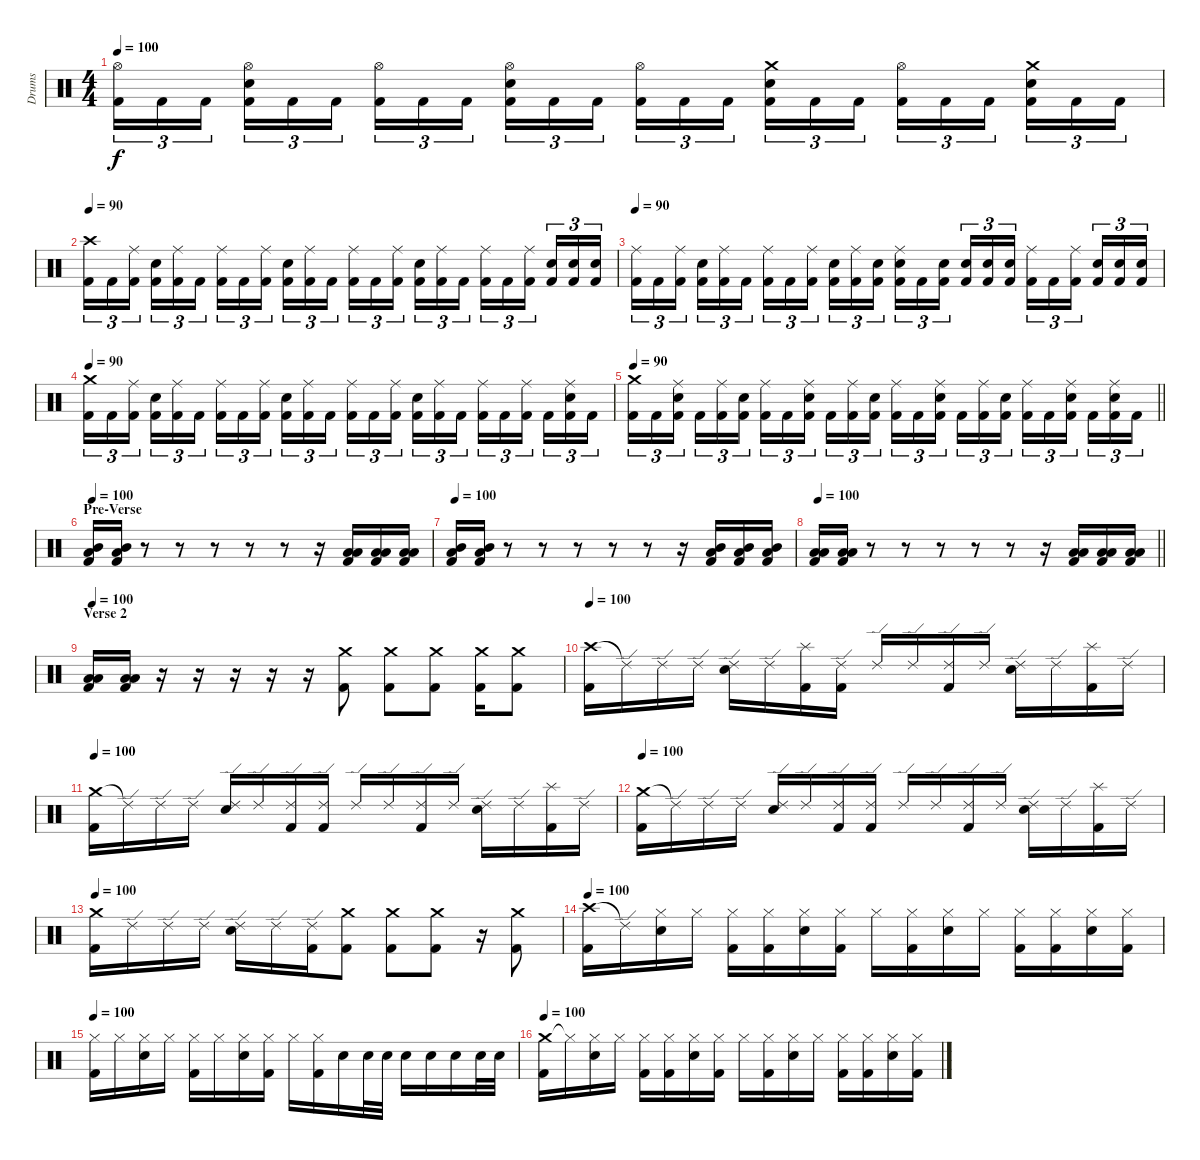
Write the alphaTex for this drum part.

\track ("Drums" "Drums") {instrument percussion}
\staff {score}
\articulation defaults
\ts (4 4)
\tempo 100
\clef neutral
\ks c
("Hi-Hat (open)" "Kick (hit) 2").16{tu (3 2) dy f} "Kick (hit) 2".16{tu (3 2)} "Kick (hit) 2".16{tu (3 2) beam splitsecondary} ("Hi-Hat (open)" "Electric Snare (hit)" "Kick (hit) 2").16{tu (3 2)} "Kick (hit) 2".16{tu (3 2)} "Kick (hit) 2".16{tu (3 2)} ("Hi-Hat (open)" "Kick (hit) 2").16{tu (3 2)} "Kick (hit) 2".16{tu (3 2)} "Kick (hit) 2".16{tu (3 2) beam splitsecondary} ("Hi-Hat (open)" "Electric Snare (hit)" "Kick (hit) 2").16{tu (3 2)} "Kick (hit) 2".16{tu (3 2)} "Kick (hit) 2".16{tu (3 2)} ("Hi-Hat (open)" "Kick (hit) 2").16{tu (3 2)} "Kick (hit) 2".16{tu (3 2)} "Kick (hit) 2".16{tu (3 2) beam splitsecondary} ("Crash medium (hit)" "Electric Snare (hit)" "Kick (hit) 2").16{tu (3 2)} "Kick (hit) 2".16{tu (3 2)} "Kick (hit) 2".16{tu (3 2)} ("Hi-Hat (open)" "Kick (hit) 2").16{tu (3 2)} "Kick (hit) 2".16{tu (3 2)} "Kick (hit) 2".16{tu (3 2) beam splitsecondary} ("Crash medium (hit)" "Electric Snare (hit)" "Kick (hit) 2").16{tu (3 2)} "Kick (hit) 2".16{tu (3 2)} "Kick (hit) 2".16{tu (3 2)} |
\tempo 90
("Crash high (hit)" "Kick (hit) 2").16{tu (3 2)} "Kick (hit) 2".16{tu (3 2)} ("Ride (middle)" "Kick (hit) 2").16{tu (3 2) beam splitsecondary} ("Electric Snare (hit)" "Kick (hit) 2").16{tu (3 2)} ("Ride (middle)" "Kick (hit) 2").16{tu (3 2)} "Kick (hit) 2".16{tu (3 2)} ("Ride (middle)" "Kick (hit) 2").16{tu (3 2)} "Kick (hit) 2".16{tu (3 2)} ("Ride (middle)" "Kick (hit) 2").16{tu (3 2) beam splitsecondary} ("Electric Snare (hit)" "Kick (hit) 2").16{tu (3 2)} ("Ride (middle)" "Kick (hit) 2").16{tu (3 2)} "Kick (hit) 2".16{tu (3 2)} ("Ride (middle)" "Kick (hit) 2").16{tu (3 2)} "Kick (hit) 2".16{tu (3 2)} ("Ride (middle)" "Kick (hit) 2").16{tu (3 2) beam splitsecondary} ("Electric Snare (hit)" "Kick (hit) 2").16{tu (3 2)} ("Ride (middle)" "Kick (hit) 2").16{tu (3 2)} "Kick (hit) 2".16{tu (3 2)} ("Ride (middle)" "Kick (hit) 2").16{tu (3 2)} "Kick (hit) 2".16{tu (3 2)} ("Ride (middle)" "Kick (hit) 2").16{tu (3 2) beam splitsecondary} ("Electric Snare (hit)" "Kick (hit) 2").16{tu (3 2)} ("Electric Snare (hit)" "Kick (hit) 2").16{tu (3 2)} ("Electric Snare (hit)" "Kick (hit) 2").16{tu (3 2)} |
\tempo 90
("Ride (middle)" "Kick (hit) 2").16{tu (3 2)} "Kick (hit) 2".16{tu (3 2)} ("Ride (middle)" "Kick (hit) 2").16{tu (3 2) beam splitsecondary} ("Electric Snare (hit)" "Kick (hit) 2").16{tu (3 2)} ("Ride (middle)" "Kick (hit) 2").16{tu (3 2)} "Kick (hit) 2".16{tu (3 2)} ("Ride (middle)" "Kick (hit) 2").16{tu (3 2)} "Kick (hit) 2".16{tu (3 2)} ("Ride (middle)" "Kick (hit) 2").16{tu (3 2) beam splitsecondary} ("Electric Snare (hit)" "Kick (hit) 2").16{tu (3 2)} ("Ride (middle)" "Kick (hit) 2").16{tu (3 2)} ("Electric Snare (hit)" "Kick (hit) 2").16{tu (3 2)} ("Ride (middle)" "Electric Snare (hit)" "Kick (hit) 2").16{tu (3 2)} "Kick (hit) 2".16{tu (3 2)} ("Electric Snare (hit)" "Kick (hit) 2").16{tu (3 2) beam splitsecondary} ("Electric Snare (hit)" "Kick (hit) 2").16{tu (3 2)} ("Electric Snare (hit)" "Kick (hit) 2").16{tu (3 2)} ("Electric Snare (hit)" "Kick (hit) 2").16{tu (3 2)} ("Ride (middle)" "Kick (hit) 2").16{tu (3 2)} "Kick (hit) 2".16{tu (3 2)} ("Ride (middle)" "Kick (hit) 2").16{tu (3 2) beam splitsecondary} ("Electric Snare (hit)" "Kick (hit) 2").16{tu (3 2)} ("Electric Snare (hit)" "Kick (hit) 2").16{tu (3 2)} ("Electric Snare (hit)" "Kick (hit) 2").16{tu (3 2)} |
\tempo 90
("Crash medium (hit)" "Kick (hit) 2").16{tu (3 2)} "Kick (hit) 2".16{tu (3 2)} ("Ride (middle)" "Kick (hit) 2").16{tu (3 2) beam splitsecondary} ("Electric Snare (hit)" "Kick (hit) 2").16{tu (3 2)} ("Ride (middle)" "Kick (hit) 2").16{tu (3 2)} "Kick (hit) 2".16{tu (3 2)} ("Ride (middle)" "Kick (hit) 2").16{tu (3 2)} "Kick (hit) 2".16{tu (3 2)} ("Ride (middle)" "Kick (hit) 2").16{tu (3 2) beam splitsecondary} ("Electric Snare (hit)" "Kick (hit) 2").16{tu (3 2)} ("Ride (middle)" "Kick (hit) 2").16{tu (3 2)} "Kick (hit) 2".16{tu (3 2)} ("Ride (middle)" "Kick (hit) 2").16{tu (3 2)} "Kick (hit) 2".16{tu (3 2)} ("Ride (middle)" "Kick (hit) 2").16{tu (3 2) beam splitsecondary} ("Electric Snare (hit)" "Kick (hit) 2").16{tu (3 2)} ("Ride (middle)" "Kick (hit) 2").16{tu (3 2)} "Kick (hit) 2".16{tu (3 2)} ("Ride (middle)" "Kick (hit) 2").16{tu (3 2)} "Kick (hit) 2".16{tu (3 2)} ("Ride (middle)" "Kick (hit) 2").16{tu (3 2) beam splitsecondary} "Kick (hit) 2".16{tu (3 2)} ("Ride (middle)" "Electric Snare (hit)" "Kick (hit) 2").16{tu (3 2)} "Kick (hit) 2".16{tu (3 2)} |
\tempo 90
\barLineRight lightlight
("Crash medium (hit)" "Kick (hit) 2").16{tu (3 2)} "Kick (hit) 2".16{tu (3 2)} ("Ride (middle)" "Electric Snare (hit)" "Kick (hit) 2").16{tu (3 2) beam splitsecondary} "Kick (hit) 2".16{tu (3 2)} ("Ride (middle)" "Kick (hit) 2").16{tu (3 2)} ("Electric Snare (hit)" "Kick (hit) 2").16{tu (3 2)} ("Ride (middle)" "Kick (hit) 2").16{tu (3 2)} "Kick (hit) 2".16{tu (3 2)} ("Ride (middle)" "Electric Snare (hit)" "Kick (hit) 2").16{tu (3 2) beam splitsecondary} "Kick (hit) 2".16{tu (3 2)} ("Ride (middle)" "Kick (hit) 2").16{tu (3 2)} ("Electric Snare (hit)" "Kick (hit) 2").16{tu (3 2)} ("Ride (middle)" "Kick (hit) 2").16{tu (3 2)} "Kick (hit) 2".16{tu (3 2)} ("Ride (middle)" "Electric Snare (hit)" "Kick (hit) 2").16{tu (3 2) beam splitsecondary} "Kick (hit) 2".16{tu (3 2)} ("Ride (middle)" "Kick (hit) 2").16{tu (3 2)} ("Electric Snare (hit)" "Kick (hit) 2").16{tu (3 2)} ("Ride (middle)" "Kick (hit) 2").16{tu (3 2)} "Kick (hit) 2".16{tu (3 2)} ("Ride (middle)" "Electric Snare (hit)" "Kick (hit) 2").16{tu (3 2) beam splitsecondary} "Kick (hit) 2".16{tu (3 2)} ("Ride (middle)" "Electric Snare (hit)" "Kick (hit) 2").16{tu (3 2)} "Kick (hit) 2".16{tu (3 2)} |
\section ("" "Pre-Verse")
\tempo 100
("Mid Tom (hit)" "Low Floor Tom (hit)" "Kick (hit) 2").16 ("Mid Tom (hit)" "Low Floor Tom (hit)" "Kick (hit) 2").16 r.8 r.8 r.8 r.8 r.8 r.16 ("Low Tom (hit)" "Low Floor Tom (hit)" "Kick (hit) 2").16 ("Low Tom (hit)" "Low Floor Tom (hit)" "Kick (hit) 2").16 ("Low Tom (hit)" "Low Floor Tom (hit)" "Kick (hit) 2").16 |
\tempo 100
("Mid Tom (hit)" "Low Floor Tom (hit)" "Kick (hit) 2").16 ("Mid Tom (hit)" "Low Floor Tom (hit)" "Kick (hit) 2").16 r.8 r.8 r.8 r.8 r.8 r.16 ("Mid Tom (hit)" "Low Floor Tom (hit)" "Kick (hit) 2").16 ("Mid Tom (hit)" "Low Floor Tom (hit)" "Kick (hit) 2").16 ("Mid Tom (hit)" "Low Floor Tom (hit)" "Kick (hit) 2").16 |
\tempo 100
\barLineRight lightlight
("Low Tom (hit)" "Low Floor Tom (hit)" "Kick (hit) 2").16 ("Low Tom (hit)" "Low Floor Tom (hit)" "Kick (hit) 2").16 r.8 r.8 r.8 r.8 r.8 r.16 ("Low Tom (hit)" "Low Floor Tom (hit)" "Kick (hit) 2").16 ("Low Tom (hit)" "Low Floor Tom (hit)" "Kick (hit) 2").16 ("Low Tom (hit)" "Low Floor Tom (hit)" "Kick (hit) 2").16 |
\section ("" "Verse 2")
\tempo 100
("Low Tom (hit)" "Low Floor Tom (hit)" "Kick (hit) 2").16 ("Low Tom (hit)" "Low Floor Tom (hit)" "Kick (hit) 2").16 r.16 r.16 r.16 r.16 r.16 ("Crash medium (hit)" "Kick (hit) 2").8 ("Crash medium (hit)" "Kick (hit) 2").8 ("Crash medium (hit)" "Kick (hit) 2").8 ("Crash medium (hit)" "Kick (hit) 2").16 ("Crash medium (hit)" "Kick (hit) 2").8 |
\tempo 100
("Crash high (hit)" "Kick (hit) 2").16 "Ride (edge) 2"{t}.16 "Ride (edge) 2".16 "Ride (edge) 2".16 ("Ride (edge) 2" "Electric Snare (hit)").16 "Ride (edge) 2".16 ("Splash (hit)" "Kick (hit) 2").16 ("Ride (edge) 2" "Kick (hit) 2").16 "Ride (edge) 2".16 "Ride (edge) 2".16 ("Ride (edge) 2" "Kick (hit) 2").16 "Ride (edge) 2".16 ("Ride (edge) 2" "Electric Snare (hit)").16 "Ride (edge) 2".16 ("Splash (hit)" "Kick (hit) 2").16 "Ride (edge) 2".16 |
\tempo 100
("Crash medium (hit)" "Kick (hit) 2").16 "Ride (edge) 2"{t}.16 "Ride (edge) 2".16 "Ride (edge) 2".16 ("Ride (edge) 2" "Electric Snare (hit)").16 "Ride (edge) 2".16 ("Ride (edge) 2" "Kick (hit) 2").16 ("Ride (edge) 2" "Kick (hit) 2").16 "Ride (edge) 2".16 "Ride (edge) 2".16 ("Ride (edge) 2" "Kick (hit) 2").16 "Ride (edge) 2".16 ("Ride (edge) 2" "Electric Snare (hit)").16 "Ride (edge) 2".16 ("Splash (hit)" "Kick (hit) 2").16 "Ride (edge) 2".16 |
\tempo 100
("Crash medium (hit)" "Kick (hit) 2").16 "Ride (edge) 2"{t}.16 "Ride (edge) 2".16 "Ride (edge) 2".16 ("Ride (edge) 2" "Electric Snare (hit)").16 "Ride (edge) 2".16 ("Ride (edge) 2" "Kick (hit) 2").16 ("Ride (edge) 2" "Kick (hit) 2").16 "Ride (edge) 2".16 "Ride (edge) 2".16 ("Ride (edge) 2" "Kick (hit) 2").16 "Ride (edge) 2".16 ("Ride (edge) 2" "Electric Snare (hit)").16 "Ride (edge) 2".16 ("Splash (hit)" "Kick (hit) 2").16 "Ride (edge) 2".16 |
\tempo 100
("Crash medium (hit)" "Kick (hit) 2").16 "Ride (edge) 2".16 "Ride (edge) 2".16 "Ride (edge) 2".16 ("Ride (edge) 2" "Electric Snare (hit)").16 "Ride (edge) 2".16 ("Ride (edge) 2" "Kick (hit) 2").16 ("Crash medium (hit)" "Kick (hit) 2").8 ("Crash medium (hit)" "Kick (hit) 2").8 ("Crash medium (hit)" "Kick (hit) 2").8 r.16 ("Crash medium (hit)" "Kick (hit) 2").8 |
\tempo 100
("Crash high (hit)" "Kick (hit) 2").16 "Ride (edge) 2"{t}.16 ("Hi-Hat (closed)" "Electric Snare (hit)").16 "Hi-Hat (closed)".16 ("Hi-Hat (closed)" "Kick (hit) 2").16 ("Hi-Hat (closed)" "Kick (hit) 2").16 ("Hi-Hat (closed)" "Electric Snare (hit)").16 ("Hi-Hat (closed)" "Kick (hit) 2").16 "Hi-Hat (closed)".16 ("Hi-Hat (closed)" "Kick (hit) 2").16 ("Hi-Hat (closed)" "Electric Snare (hit)").16 "Hi-Hat (closed)".16 ("Hi-Hat (closed)" "Kick (hit) 2").16 ("Hi-Hat (closed)" "Kick (hit) 2").16 ("Hi-Hat (closed)" "Electric Snare (hit)").16 ("Hi-Hat (closed)" "Kick (hit) 2").16 |
\tempo 100
("Hi-Hat (closed)" "Kick (hit) 2").16 "Hi-Hat (closed)".16 ("Hi-Hat (closed)" "Electric Snare (hit)").16 "Hi-Hat (closed)".16 ("Hi-Hat (closed)" "Kick (hit) 2").16 "Hi-Hat (closed)".16 ("Hi-Hat (closed)" "Electric Snare (hit)").16 ("Hi-Hat (closed)" "Kick (hit) 2").16 "Hi-Hat (closed)".16 ("Hi-Hat (closed)" "Kick (hit) 2").16 "Electric Snare (hit)".16 "Electric Snare (hit)".32 "Electric Snare (hit)".32 "Electric Snare (hit)".16 "Electric Snare (hit)".16 "Electric Snare (hit)".16 "Electric Snare (hit)".32 "Electric Snare (hit)".32 |
\tempo 100
("Crash medium (hit)" "Kick (hit) 2").16 "Hi-Hat (closed)"{t}.16 ("Hi-Hat (closed)" "Electric Snare (hit)").16 "Hi-Hat (closed)".16 ("Hi-Hat (closed)" "Kick (hit) 2").16 ("Hi-Hat (closed)" "Kick (hit) 2").16 ("Hi-Hat (closed)" "Electric Snare (hit)").16 ("Hi-Hat (closed)" "Kick (hit) 2").16 "Hi-Hat (closed)".16 ("Hi-Hat (closed)" "Kick (hit) 2").16 ("Hi-Hat (closed)" "Electric Snare (hit)").16 "Hi-Hat (closed)".16 ("Hi-Hat (closed)" "Kick (hit) 2").16 ("Hi-Hat (closed)" "Kick (hit) 2").16 ("Hi-Hat (closed)" "Electric Snare (hit)").16 ("Hi-Hat (closed)" "Kick (hit) 2").16
